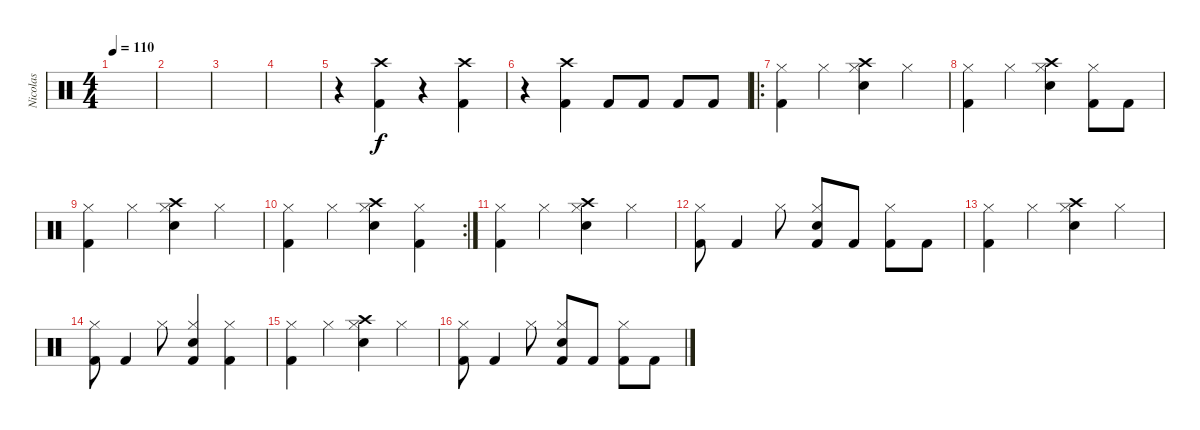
\track ("Nicolas" "Nicolas") {instrument percussion}
\staff {score}
\articulation defaults
\ts (4 4)
\tempo 110
\clef neutral
\ks c
|
|
|
|
r.4 ("Kick (hit) 2" "Crash high (hit)").4 r.4 ("Kick (hit) 2" "Crash high (hit)").4 |
r.4 ("Kick (hit) 2" "Crash high (hit)").4 "Kick (hit) 2".8 "Kick (hit) 2".8 "Kick (hit) 2".8 "Kick (hit) 2".8 |
\ro
("Hi-Hat (closed)" "Kick (hit) 2").4 "Hi-Hat (closed)".4 ("Hi-Hat (closed)" "Snare (hit) 2" "Crash high (hit)").4 "Hi-Hat (closed)".4 |
("Hi-Hat (closed)" "Kick (hit) 2").4 "Hi-Hat (closed)".4 ("Hi-Hat (closed)" "Snare (hit) 2" "Crash high (hit)").4 ("Kick (hit) 2" "Hi-Hat (closed)").8 "Kick (hit) 2".8 |
("Hi-Hat (closed)" "Kick (hit) 2").4 "Hi-Hat (closed)".4 ("Hi-Hat (closed)" "Snare (hit) 2" "Crash high (hit)").4 "Hi-Hat (closed)".4 |
\rc 2
("Hi-Hat (closed)" "Kick (hit) 2").4 "Hi-Hat (closed)".4 ("Hi-Hat (closed)" "Snare (hit) 2" "Crash high (hit)").4 ("Kick (hit) 2" "Hi-Hat (closed)").4 |
("Hi-Hat (closed)" "Kick (hit) 2").4 "Hi-Hat (closed)".4 ("Hi-Hat (closed)" "Snare (hit) 2" "Crash high (hit)").4 "Hi-Hat (closed)".4 |
("Hi-Hat (closed)" "Kick (hit) 2").8 "Kick (hit) 2".4 "Hi-Hat (closed)".8 ("Kick (hit) 2" "Snare (hit) 2" "Hi-Hat (closed)").8 "Kick (hit) 2".8 ("Kick (hit) 2" "Hi-Hat (closed)").8 "Kick (hit) 2".8 |
("Hi-Hat (closed)" "Kick (hit) 2").4 "Hi-Hat (closed)".4 ("Hi-Hat (closed)" "Snare (hit) 2" "Crash high (hit)").4 "Hi-Hat (closed)".4 |
("Hi-Hat (closed)" "Kick (hit) 2").8 "Kick (hit) 2".4 "Hi-Hat (closed)".8 ("Kick (hit) 2" "Snare (hit) 2" "Hi-Hat (closed)").4 ("Kick (hit) 2" "Hi-Hat (closed)").4 |
("Hi-Hat (closed)" "Kick (hit) 2").4 "Hi-Hat (closed)".4 ("Hi-Hat (closed)" "Snare (hit) 2" "Crash high (hit)").4 "Hi-Hat (closed)".4 |
("Hi-Hat (closed)" "Kick (hit) 2").8 "Kick (hit) 2".4 "Hi-Hat (closed)".8 ("Kick (hit) 2" "Snare (hit) 2" "Hi-Hat (closed)").8 "Kick (hit) 2".8 ("Kick (hit) 2" "Hi-Hat (closed)").8 "Kick (hit) 2".8
